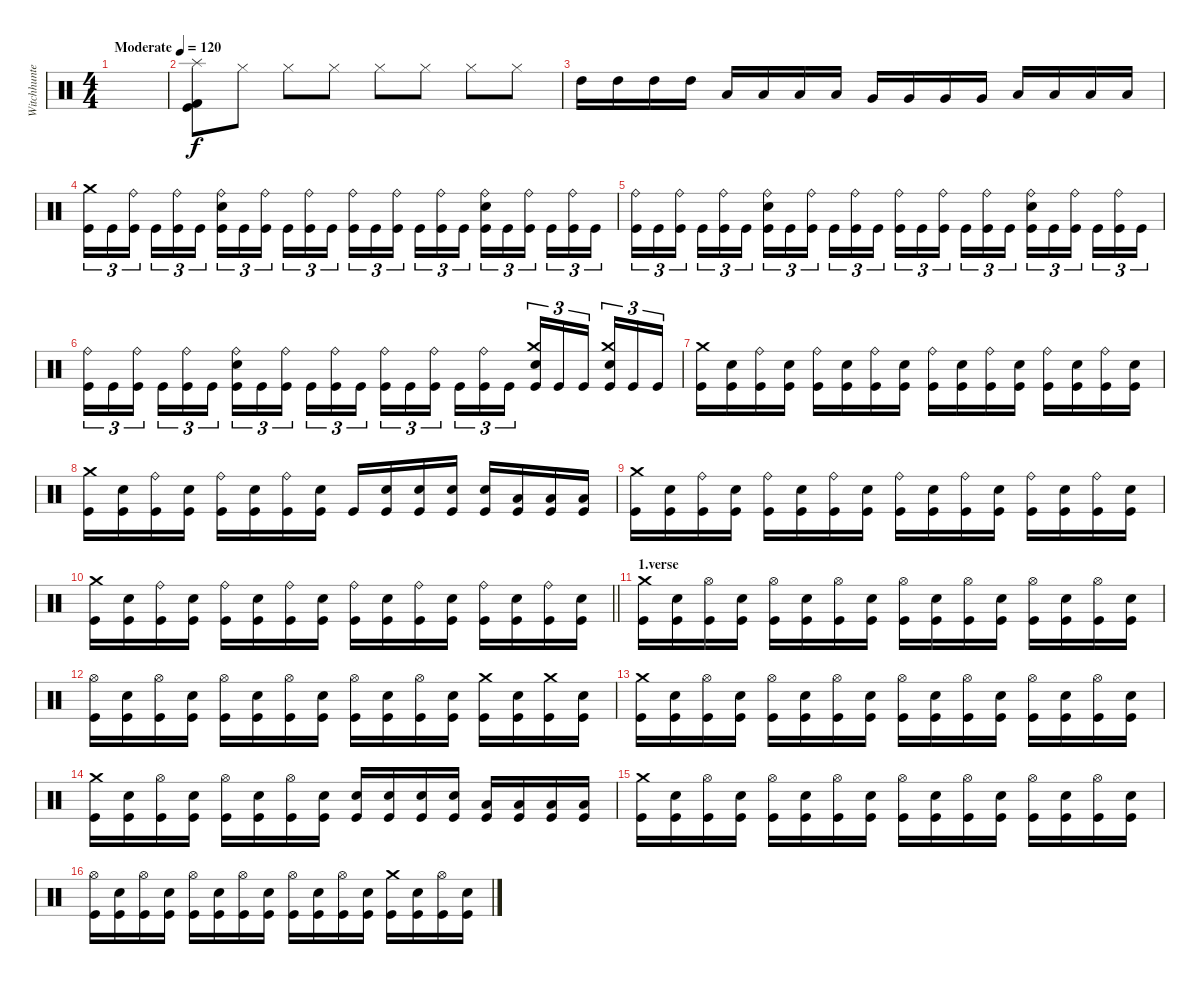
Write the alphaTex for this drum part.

\track ("Witchhunter" "Witchhunte") {instrument percussion}
\staff {score}
\articulation defaults
\ts (4 4)
\tempo (120 "Moderate")
\clef neutral
\ks c
|
("Splash (hit)" "Kick (hit) 2" "Kick (hit)").8 "Hi-Hat (closed)".8 "Hi-Hat (closed)".8 "Hi-Hat (closed)".8 "Hi-Hat (closed)".8 "Hi-Hat (closed)".8 "Hi-Hat (closed)".8 "Hi-Hat (closed)".8 |
"High Tom (hit)".16 "High Tom (hit)".16 "High Tom (hit)".16 "High Tom (hit)".16 "Low Tom (hit)".16 "Low Tom (hit)".16 "Low Tom (hit)".16 "Low Tom (hit)".16 "Very Low Tom (hit)".16 "Very Low Tom (hit)".16 "Very Low Tom (hit)".16 "Very Low Tom (hit)".16 "Low Floor Tom (hit)".16 "Low Floor Tom (hit)".16 "Low Floor Tom (hit)".16 "Low Floor Tom (hit)".16 |
("Crash medium (hit)" "Kick (hit)").16{tu (3 2)} "Kick (hit)".16{tu (3 2)} ("Ride (bell)" "Kick (hit)").16{tu (3 2) beam splitsecondary} "Kick (hit)".16{tu (3 2)} ("Ride (bell)" "Kick (hit)").16{tu (3 2)} "Kick (hit)".16{tu (3 2)} ("Ride (bell)" "Snare (hit) 2" "Kick (hit)").16{tu (3 2)} "Kick (hit)".16{tu (3 2)} ("Ride (bell)" "Kick (hit)").16{tu (3 2) beam splitsecondary} "Kick (hit)".16{tu (3 2)} ("Ride (bell)" "Kick (hit)").16{tu (3 2)} "Kick (hit)".16{tu (3 2)} ("Ride (bell)" "Kick (hit)").16{tu (3 2)} "Kick (hit)".16{tu (3 2)} ("Ride (bell)" "Kick (hit)").16{tu (3 2) beam splitsecondary} "Kick (hit)".16{tu (3 2)} ("Ride (bell)" "Kick (hit)").16{tu (3 2)} "Kick (hit)".16{tu (3 2)} ("Ride (bell)" "Snare (hit) 2" "Kick (hit)").16{tu (3 2)} "Kick (hit)".16{tu (3 2)} ("Ride (bell)" "Kick (hit)").16{tu (3 2) beam splitsecondary} "Kick (hit)".16{tu (3 2)} ("Ride (bell)" "Kick (hit)").16{tu (3 2)} "Kick (hit)".16{tu (3 2)} |
("Ride (bell)" "Kick (hit)").16{tu (3 2)} "Kick (hit)".16{tu (3 2)} ("Ride (bell)" "Kick (hit)").16{tu (3 2) beam splitsecondary} "Kick (hit)".16{tu (3 2)} ("Ride (bell)" "Kick (hit)").16{tu (3 2)} "Kick (hit)".16{tu (3 2)} ("Ride (bell)" "Snare (hit) 2" "Kick (hit)").16{tu (3 2)} "Kick (hit)".16{tu (3 2)} ("Ride (bell)" "Kick (hit)").16{tu (3 2) beam splitsecondary} "Kick (hit)".16{tu (3 2)} ("Ride (bell)" "Kick (hit)").16{tu (3 2)} "Kick (hit)".16{tu (3 2)} ("Ride (bell)" "Kick (hit)").16{tu (3 2)} "Kick (hit)".16{tu (3 2)} ("Ride (bell)" "Kick (hit)").16{tu (3 2) beam splitsecondary} "Kick (hit)".16{tu (3 2)} ("Ride (bell)" "Kick (hit)").16{tu (3 2)} "Kick (hit)".16{tu (3 2)} ("Ride (bell)" "Snare (hit) 2" "Kick (hit)").16{tu (3 2)} "Kick (hit)".16{tu (3 2)} ("Ride (bell)" "Kick (hit)").16{tu (3 2) beam splitsecondary} "Kick (hit)".16{tu (3 2)} ("Ride (bell)" "Kick (hit)").16{tu (3 2)} "Kick (hit)".16{tu (3 2)} |
("Ride (bell)" "Kick (hit)").16{tu (3 2)} "Kick (hit)".16{tu (3 2)} ("Ride (bell)" "Kick (hit)").16{tu (3 2) beam splitsecondary} "Kick (hit)".16{tu (3 2)} ("Ride (bell)" "Kick (hit)").16{tu (3 2)} "Kick (hit)".16{tu (3 2)} ("Ride (bell)" "Snare (hit) 2" "Kick (hit)").16{tu (3 2)} "Kick (hit)".16{tu (3 2)} ("Ride (bell)" "Kick (hit)").16{tu (3 2) beam splitsecondary} "Kick (hit)".16{tu (3 2)} ("Ride (bell)" "Kick (hit)").16{tu (3 2)} "Kick (hit)".16{tu (3 2)} ("Ride (bell)" "Kick (hit)").16{tu (3 2)} "Kick (hit)".16{tu (3 2)} ("Ride (bell)" "Kick (hit)").16{tu (3 2) beam splitsecondary} "Kick (hit)".16{tu (3 2)} ("Ride (bell)" "Kick (hit)").16{tu (3 2)} "Kick (hit)".16{tu (3 2)} ("Crash medium (hit)" "Snare (hit) 2" "Kick (hit)").16{tu (3 2)} "Kick (hit)".16{tu (3 2)} "Kick (hit)".16{tu (3 2) beam splitsecondary} ("Crash medium (hit)" "Snare (hit) 2" "Kick (hit)").16{tu (3 2)} "Kick (hit)".16{tu (3 2)} "Kick (hit)".16{tu (3 2)} |
("Crash medium (hit)" "Kick (hit)").16 ("Snare (hit) 2" "Kick (hit)").16 ("Ride (bell)" "Kick (hit)").16 ("Snare (hit) 2" "Kick (hit)").16 ("Ride (bell)" "Kick (hit)").16 ("Snare (hit) 2" "Kick (hit)").16 ("Ride (bell)" "Kick (hit)").16 ("Snare (hit) 2" "Kick (hit)").16 ("Ride (bell)" "Kick (hit)").16 ("Snare (hit) 2" "Kick (hit)").16 ("Ride (bell)" "Kick (hit)").16 ("Snare (hit) 2" "Kick (hit)").16 ("Ride (bell)" "Kick (hit)").16 ("Snare (hit) 2" "Kick (hit)").16 ("Ride (bell)" "Kick (hit)").16 ("Snare (hit) 2" "Kick (hit)").16 |
("Crash medium (hit)" "Kick (hit)").16 ("Snare (hit) 2" "Kick (hit)").16 ("Ride (bell)" "Kick (hit)").16 ("Snare (hit) 2" "Kick (hit)").16 ("Ride (bell)" "Kick (hit)").16 ("Snare (hit) 2" "Kick (hit)").16 ("Ride (bell)" "Kick (hit)").16 ("Snare (hit) 2" "Kick (hit)").16 "Kick (hit)".16 ("Snare (hit) 2" "Kick (hit)").16 ("Snare (hit) 2" "Kick (hit)").16 ("Snare (hit) 2" "Kick (hit)").16 ("Snare (hit) 2" "Kick (hit)").16 ("Low Tom (hit)" "Kick (hit)").16 ("Low Tom (hit)" "Kick (hit)").16 ("Low Tom (hit)" "Kick (hit)").16 |
("Crash medium (hit)" "Kick (hit)").16 ("Snare (hit) 2" "Kick (hit)").16 ("Ride (bell)" "Kick (hit)").16 ("Snare (hit) 2" "Kick (hit)").16 ("Ride (bell)" "Kick (hit)").16 ("Snare (hit) 2" "Kick (hit)").16 ("Ride (bell)" "Kick (hit)").16 ("Snare (hit) 2" "Kick (hit)").16 ("Ride (bell)" "Kick (hit)").16 ("Snare (hit) 2" "Kick (hit)").16 ("Ride (bell)" "Kick (hit)").16 ("Snare (hit) 2" "Kick (hit)").16 ("Ride (bell)" "Kick (hit)").16 ("Snare (hit) 2" "Kick (hit)").16 ("Ride (bell)" "Kick (hit)").16 ("Snare (hit) 2" "Kick (hit)").16 |
\barLineRight lightlight
("Crash medium (hit)" "Kick (hit)").16 ("Snare (hit) 2" "Kick (hit)").16 ("Ride (bell)" "Kick (hit)").16 ("Snare (hit) 2" "Kick (hit)").16 ("Ride (bell)" "Kick (hit)").16 ("Snare (hit) 2" "Kick (hit)").16 ("Ride (bell)" "Kick (hit)").16 ("Snare (hit) 2" "Kick (hit)").16 ("Ride (bell)" "Kick (hit)").16 ("Snare (hit) 2" "Kick (hit)").16 ("Ride (bell)" "Kick (hit)").16 ("Snare (hit) 2" "Kick (hit)").16 ("Ride (bell)" "Kick (hit)").16 ("Snare (hit) 2" "Kick (hit)").16 ("Ride (bell)" "Kick (hit)").16 ("Snare (hit) 2" "Kick (hit)").16 |
\section ("" "1.verse")
("Crash medium (hit)" "Kick (hit)").16 ("Snare (hit) 2" "Kick (hit)").16 ("Hi-Hat (open)" "Kick (hit)").16 ("Snare (hit) 2" "Kick (hit)").16 ("Hi-Hat (open)" "Kick (hit)").16 ("Snare (hit) 2" "Kick (hit)").16 ("Hi-Hat (open)" "Kick (hit)").16 ("Snare (hit) 2" "Kick (hit)").16 ("Hi-Hat (open)" "Kick (hit)").16 ("Snare (hit) 2" "Kick (hit)").16 ("Hi-Hat (open)" "Kick (hit)").16 ("Snare (hit) 2" "Kick (hit)").16 ("Hi-Hat (open)" "Kick (hit)").16 ("Snare (hit) 2" "Kick (hit)").16 ("Hi-Hat (open)" "Kick (hit)").16 ("Snare (hit) 2" "Kick (hit)").16 |
("Hi-Hat (open)" "Kick (hit)").16 ("Snare (hit) 2" "Kick (hit)").16 ("Hi-Hat (open)" "Kick (hit)").16 ("Snare (hit) 2" "Kick (hit)").16 ("Hi-Hat (open)" "Kick (hit)").16 ("Snare (hit) 2" "Kick (hit)").16 ("Hi-Hat (open)" "Kick (hit)").16 ("Snare (hit) 2" "Kick (hit)").16 ("Hi-Hat (open)" "Kick (hit)").16 ("Snare (hit) 2" "Kick (hit)").16 ("Hi-Hat (open)" "Kick (hit)").16 ("Snare (hit) 2" "Kick (hit)").16 ("Crash medium (hit)" "Kick (hit)").16 ("Snare (hit) 2" "Kick (hit)").16 ("Crash medium (hit)" "Kick (hit)").16 ("Snare (hit) 2" "Kick (hit)").16 |
("Crash medium (hit)" "Kick (hit)").16 ("Snare (hit) 2" "Kick (hit)").16 ("Hi-Hat (open)" "Kick (hit)").16 ("Snare (hit) 2" "Kick (hit)").16 ("Hi-Hat (open)" "Kick (hit)").16 ("Snare (hit) 2" "Kick (hit)").16 ("Hi-Hat (open)" "Kick (hit)").16 ("Snare (hit) 2" "Kick (hit)").16 ("Hi-Hat (open)" "Kick (hit)").16 ("Snare (hit) 2" "Kick (hit)").16 ("Hi-Hat (open)" "Kick (hit)").16 ("Snare (hit) 2" "Kick (hit)").16 ("Hi-Hat (open)" "Kick (hit)").16 ("Snare (hit) 2" "Kick (hit)").16 ("Hi-Hat (open)" "Kick (hit)").16 ("Snare (hit) 2" "Kick (hit)").16 |
("Crash medium (hit)" "Kick (hit)").16 ("Snare (hit) 2" "Kick (hit)").16 ("Hi-Hat (open)" "Kick (hit)").16 ("Snare (hit) 2" "Kick (hit)").16 ("Hi-Hat (open)" "Kick (hit)").16 ("Snare (hit) 2" "Kick (hit)").16 ("Hi-Hat (open)" "Kick (hit)").16 ("Snare (hit) 2" "Kick (hit)").16 ("Snare (hit) 2" "Kick (hit)").16 ("Snare (hit) 2" "Kick (hit)").16 ("Snare (hit) 2" "Kick (hit)").16 ("Snare (hit) 2" "Kick (hit)").16 ("Low Tom (hit)" "Kick (hit)").16 ("Low Tom (hit)" "Kick (hit)").16 ("Low Tom (hit)" "Kick (hit)").16 ("Low Tom (hit)" "Kick (hit)").16 |
("Crash medium (hit)" "Kick (hit)").16 ("Snare (hit) 2" "Kick (hit)").16 ("Hi-Hat (open)" "Kick (hit)").16 ("Snare (hit) 2" "Kick (hit)").16 ("Hi-Hat (open)" "Kick (hit)").16 ("Snare (hit) 2" "Kick (hit)").16 ("Hi-Hat (open)" "Kick (hit)").16 ("Snare (hit) 2" "Kick (hit)").16 ("Hi-Hat (open)" "Kick (hit)").16 ("Snare (hit) 2" "Kick (hit)").16 ("Hi-Hat (open)" "Kick (hit)").16 ("Snare (hit) 2" "Kick (hit)").16 ("Hi-Hat (open)" "Kick (hit)").16 ("Snare (hit) 2" "Kick (hit)").16 ("Hi-Hat (open)" "Kick (hit)").16 ("Snare (hit) 2" "Kick (hit)").16 |
("Hi-Hat (open)" "Kick (hit)").16 ("Snare (hit) 2" "Kick (hit)").16 ("Hi-Hat (open)" "Kick (hit)").16 ("Snare (hit) 2" "Kick (hit)").16 ("Hi-Hat (open)" "Kick (hit)").16 ("Snare (hit) 2" "Kick (hit)").16 ("Hi-Hat (open)" "Kick (hit)").16 ("Snare (hit) 2" "Kick (hit)").16 ("Hi-Hat (open)" "Kick (hit)").16 ("Snare (hit) 2" "Kick (hit)").16 ("Hi-Hat (open)" "Kick (hit)").16 ("Snare (hit) 2" "Kick (hit)").16 ("Crash medium (hit)" "Kick (hit)").16 ("Snare (hit) 2" "Kick (hit)").16 ("Hi-Hat (open)" "Kick (hit)").16 ("Snare (hit) 2" "Kick (hit)").16
